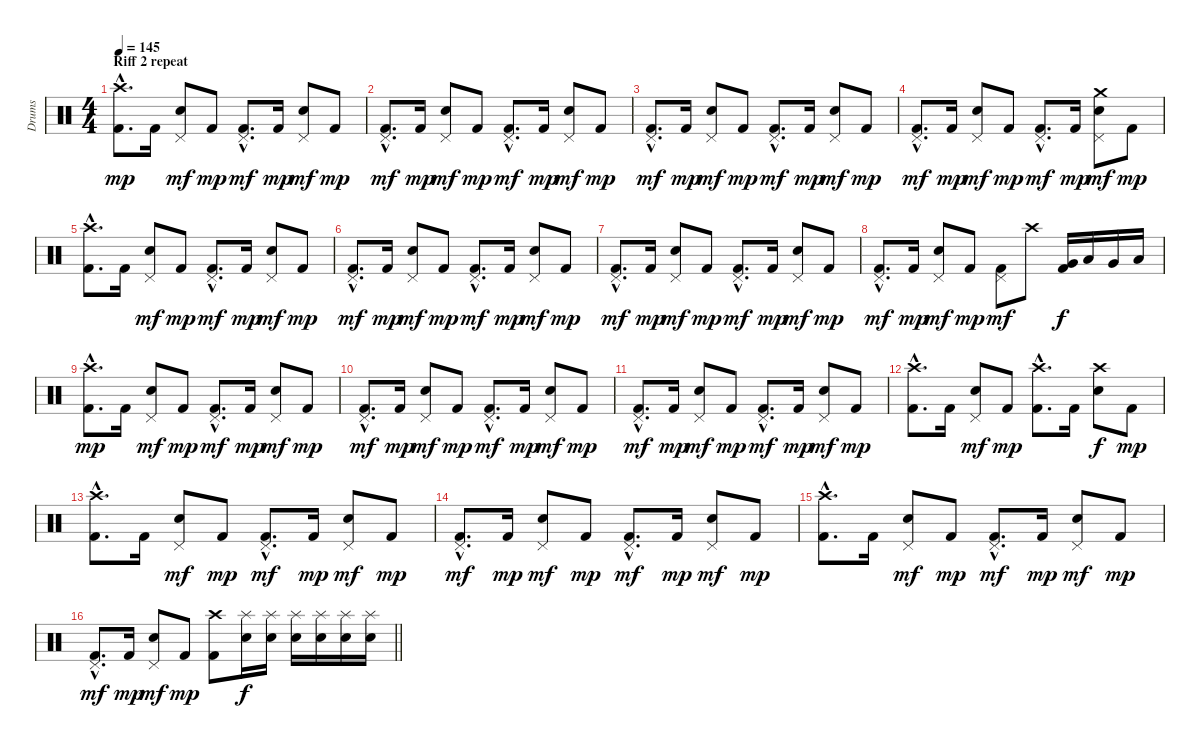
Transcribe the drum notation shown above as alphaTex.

\track ("Drums" "Drums") {instrument percussion}
\staff {score}
\articulation defaults
\ts (4 4)
\section ("" "Riff 2 repeat")
\tempo 145
\clef neutral
\ks c
("Kick (hit) 2"{hac} "Crash high (hit)"{hac}).8{d dy mp} "Kick (hit) 2".16 ("Electric Snare (hit)" "Pedal Hi-Hat (hit)").8{dy mf} "Kick (hit) 2".8{dy mp} ("Kick (hit) 2"{hac} "Pedal Hi-Hat (hit)"{hac}).8{d dy mf} "Kick (hit) 2".16{dy mp} ("Electric Snare (hit)" "Pedal Hi-Hat (hit)").8{dy mf} "Kick (hit) 2".8{dy mp} |
("Kick (hit) 2"{hac} "Pedal Hi-Hat (hit)"{hac}).8{d dy mf} "Kick (hit) 2".16{dy mp} ("Electric Snare (hit)" "Pedal Hi-Hat (hit)").8{dy mf} "Kick (hit) 2".8{dy mp} ("Kick (hit) 2"{hac} "Pedal Hi-Hat (hit)"{hac}).8{d dy mf} "Kick (hit) 2".16{dy mp} ("Electric Snare (hit)" "Pedal Hi-Hat (hit)").8{dy mf} "Kick (hit) 2".8{dy mp} |
("Kick (hit) 2"{hac} "Pedal Hi-Hat (hit)"{hac}).8{d dy mf} "Kick (hit) 2".16{dy mp} ("Electric Snare (hit)" "Pedal Hi-Hat (hit)").8{dy mf} "Kick (hit) 2".8{dy mp} ("Kick (hit) 2"{hac} "Pedal Hi-Hat (hit)"{hac}).8{d dy mf} "Kick (hit) 2".16{dy mp} ("Electric Snare (hit)" "Pedal Hi-Hat (hit)").8{dy mf} "Kick (hit) 2".8{dy mp} |
("Kick (hit) 2"{hac} "Pedal Hi-Hat (hit)"{hac}).8{d dy mf} "Kick (hit) 2".16{dy mp} ("Electric Snare (hit)" "Pedal Hi-Hat (hit)").8{dy mf} "Kick (hit) 2".8{dy mp} ("Kick (hit) 2"{hac} "Pedal Hi-Hat (hit)"{hac}).8{d dy mf} "Kick (hit) 2".16{dy mp} ("Electric Snare (hit)" "Pedal Hi-Hat (hit)" "Crash medium (hit)").8{dy mf} "Kick (hit) 2".8{dy mp} |
("Kick (hit) 2"{hac} "Crash high (hit)"{hac}).8{d} "Kick (hit) 2".16 ("Electric Snare (hit)" "Pedal Hi-Hat (hit)").8{dy mf} "Kick (hit) 2".8{dy mp} ("Kick (hit) 2"{hac} "Pedal Hi-Hat (hit)"{hac}).8{d dy mf} "Kick (hit) 2".16{dy mp} ("Electric Snare (hit)" "Pedal Hi-Hat (hit)").8{dy mf} "Kick (hit) 2".8{dy mp} |
("Kick (hit) 2"{hac} "Pedal Hi-Hat (hit)"{hac}).8{d dy mf} "Kick (hit) 2".16{dy mp} ("Electric Snare (hit)" "Pedal Hi-Hat (hit)").8{dy mf} "Kick (hit) 2".8{dy mp} ("Kick (hit) 2"{hac} "Pedal Hi-Hat (hit)"{hac}).8{d dy mf} "Kick (hit) 2".16{dy mp} ("Electric Snare (hit)" "Pedal Hi-Hat (hit)").8{dy mf} "Kick (hit) 2".8{dy mp} |
("Kick (hit) 2"{hac} "Pedal Hi-Hat (hit)"{hac}).8{d dy mf} "Kick (hit) 2".16{dy mp} ("Electric Snare (hit)" "Pedal Hi-Hat (hit)").8{dy mf} "Kick (hit) 2".8{dy mp} ("Kick (hit) 2"{hac} "Pedal Hi-Hat (hit)"{hac}).8{d dy mf} "Kick (hit) 2".16{dy mp} ("Electric Snare (hit)" "Pedal Hi-Hat (hit)").8{dy mf} "Kick (hit) 2".8{dy mp} |
("Kick (hit) 2"{hac} "Pedal Hi-Hat (hit)"{hac}).8{d dy mf} "Kick (hit) 2".16{dy mp} ("Electric Snare (hit)" "Pedal Hi-Hat (hit)").8{dy mf} "Kick (hit) 2".8{dy mp} ("Kick (hit) 2" "Pedal Hi-Hat (hit)").8{dy mf} "Crash high (hit)".8 ("Kick (hit) 2" "Very Low Tom (hit)").16{dy f} "Low Floor Tom (hit)".16 "Very Low Tom (hit)".16 "Low Tom (hit)".16 |
("Kick (hit) 2"{hac} "Crash high (hit)"{hac}).8{d dy mp} "Kick (hit) 2".16 ("Electric Snare (hit)" "Pedal Hi-Hat (hit)").8{dy mf} "Kick (hit) 2".8{dy mp} ("Kick (hit) 2"{hac} "Pedal Hi-Hat (hit)"{hac}).8{d dy mf} "Kick (hit) 2".16{dy mp} ("Electric Snare (hit)" "Pedal Hi-Hat (hit)").8{dy mf} "Kick (hit) 2".8{dy mp} |
("Kick (hit) 2"{hac} "Pedal Hi-Hat (hit)"{hac}).8{d dy mf} "Kick (hit) 2".16{dy mp} ("Electric Snare (hit)" "Pedal Hi-Hat (hit)").8{dy mf} "Kick (hit) 2".8{dy mp} ("Kick (hit) 2"{hac} "Pedal Hi-Hat (hit)"{hac}).8{d dy mf} "Kick (hit) 2".16{dy mp} ("Electric Snare (hit)" "Pedal Hi-Hat (hit)").8{dy mf} "Kick (hit) 2".8{dy mp} |
("Kick (hit) 2"{hac} "Pedal Hi-Hat (hit)"{hac}).8{d dy mf} "Kick (hit) 2".16{dy mp} ("Electric Snare (hit)" "Pedal Hi-Hat (hit)").8{dy mf} "Kick (hit) 2".8{dy mp} ("Kick (hit) 2"{hac} "Pedal Hi-Hat (hit)"{hac}).8{d dy mf} "Kick (hit) 2".16{dy mp} ("Electric Snare (hit)" "Pedal Hi-Hat (hit)").8{dy mf} "Kick (hit) 2".8{dy mp} |
("Kick (hit) 2"{hac} "Crash high (hit)"{hac}).8{d} "Kick (hit) 2".16 ("Electric Snare (hit)" "Pedal Hi-Hat (hit)").8{dy mf} "Kick (hit) 2".8{dy mp} ("Kick (hit) 2"{hac} "Crash high (hit)"{hac}).8{d} "Kick (hit) 2".16 ("Electric Snare (hit)" "Crash high (hit)").8{dy f} "Kick (hit) 2".8{dy mp} |
("Kick (hit) 2"{hac} "Crash high (hit)"{hac}).8{d} "Kick (hit) 2".16 ("Electric Snare (hit)" "Pedal Hi-Hat (hit)").8{dy mf} "Kick (hit) 2".8{dy mp} ("Kick (hit) 2"{hac} "Pedal Hi-Hat (hit)"{hac}).8{d dy mf} "Kick (hit) 2".16{dy mp} ("Electric Snare (hit)" "Pedal Hi-Hat (hit)").8{dy mf} "Kick (hit) 2".8{dy mp} |
("Kick (hit) 2"{hac} "Pedal Hi-Hat (hit)"{hac}).8{d dy mf} "Kick (hit) 2".16{dy mp} ("Electric Snare (hit)" "Pedal Hi-Hat (hit)").8{dy mf} "Kick (hit) 2".8{dy mp} ("Kick (hit) 2"{hac} "Pedal Hi-Hat (hit)"{hac}).8{d dy mf} "Kick (hit) 2".16{dy mp} ("Electric Snare (hit)" "Pedal Hi-Hat (hit)").8{dy mf} "Kick (hit) 2".8{dy mp} |
("Kick (hit) 2"{hac} "Crash high (hit)"{hac}).8{d} "Kick (hit) 2".16 ("Electric Snare (hit)" "Pedal Hi-Hat (hit)").8{dy mf} "Kick (hit) 2".8{dy mp} ("Kick (hit) 2"{hac} "Pedal Hi-Hat (hit)"{hac}).8{d dy mf} "Kick (hit) 2".16{dy mp} ("Electric Snare (hit)" "Pedal Hi-Hat (hit)").8{dy mf} "Kick (hit) 2".8{dy mp} |
\barLineRight lightlight
("Kick (hit) 2"{hac} "Pedal Hi-Hat (hit)"{hac}).8{d dy mf} "Kick (hit) 2".16{dy mp} ("Electric Snare (hit)" "Pedal Hi-Hat (hit)").8{dy mf} "Kick (hit) 2".8{dy mp} ("Kick (hit) 2" "Crash high (hit)").8 ("Electric Snare (hit)" "Splash (hit)").16{dy f} ("Electric Snare (hit)" "Splash (hit)").16 ("Electric Snare (hit)" "Splash (hit)").16 ("Electric Snare (hit)" "Splash (hit)").16 ("Electric Snare (hit)" "Splash (hit)").16 ("Electric Snare (hit)" "Splash (hit)").16
